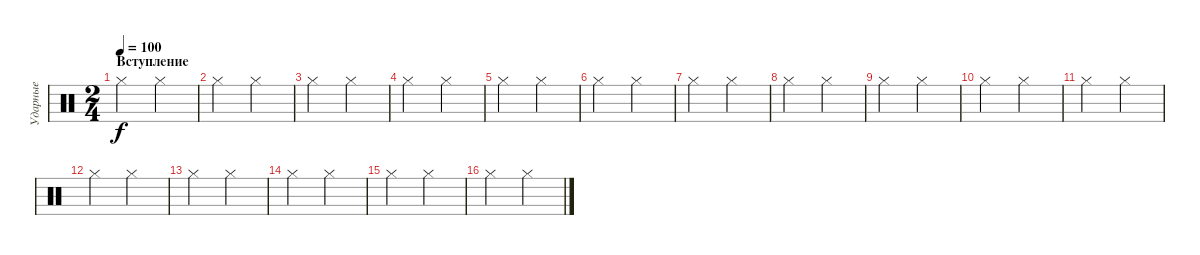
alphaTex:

\track ("Ударные" "Ударные") {instrument percussion}
\staff {score}
\articulation defaults
\ts (2 4)
\section ("" "Вступление")
\tempo 100
\clef neutral
\ks c "Hi-Hat (closed)".4{dy f} "Hi-Hat (closed)".4
|
"Hi-Hat (closed)".4 "Hi-Hat (closed)".4 |
"Hi-Hat (closed)".4 "Hi-Hat (closed)".4 |
"Hi-Hat (closed)".4 "Hi-Hat (closed)".4 |
"Hi-Hat (closed)".4 "Hi-Hat (closed)".4 |
"Hi-Hat (closed)".4 "Hi-Hat (closed)".4 |
"Hi-Hat (closed)".4 "Hi-Hat (closed)".4 |
"Hi-Hat (closed)".4 "Hi-Hat (closed)".4 |
"Hi-Hat (closed)".4 "Hi-Hat (closed)".4 |
"Hi-Hat (closed)".4 "Hi-Hat (closed)".4 |
"Hi-Hat (closed)".4 "Hi-Hat (closed)".4 |
"Hi-Hat (closed)".4 "Hi-Hat (closed)".4 |
"Hi-Hat (closed)".4 "Hi-Hat (closed)".4 |
"Hi-Hat (closed)".4 "Hi-Hat (closed)".4 |
"Hi-Hat (closed)".4 "Hi-Hat (closed)".4 |
"Hi-Hat (closed)".4 "Hi-Hat (closed)".4
